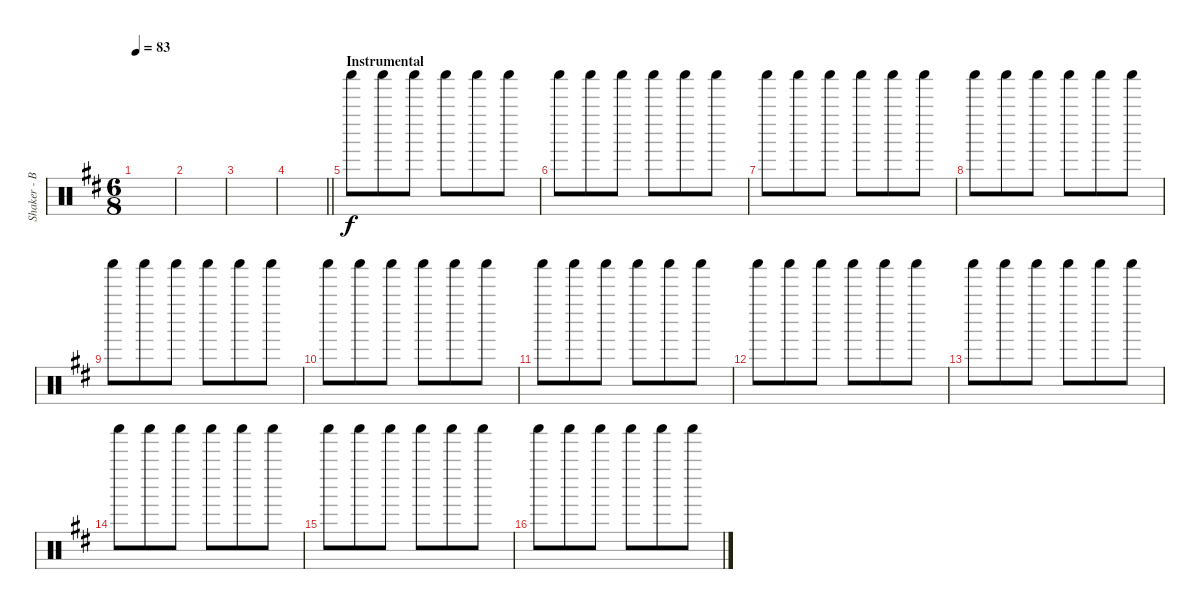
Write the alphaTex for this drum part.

\track ("Shaker - Ben Johnston" "Shaker - B") {instrument percussion}
\staff {score}
\articulation defaults
\ts (6 8)
\tempo 83
\clef neutral
\ks d
|
|
|
\barLineRight lightlight
|
\section ("" "Instrumental")
"Shaker (hit)".8 "Shaker (hit)".8 "Shaker (hit)".8 "Shaker (hit)".8 "Shaker (hit)".8 "Shaker (hit)".8 |
"Shaker (hit)".8 "Shaker (hit)".8 "Shaker (hit)".8 "Shaker (hit)".8 "Shaker (hit)".8 "Shaker (hit)".8 |
"Shaker (hit)".8 "Shaker (hit)".8 "Shaker (hit)".8 "Shaker (hit)".8 "Shaker (hit)".8 "Shaker (hit)".8 |
"Shaker (hit)".8 "Shaker (hit)".8 "Shaker (hit)".8 "Shaker (hit)".8 "Shaker (hit)".8 "Shaker (hit)".8 |
"Shaker (hit)".8 "Shaker (hit)".8 "Shaker (hit)".8 "Shaker (hit)".8 "Shaker (hit)".8 "Shaker (hit)".8 |
"Shaker (hit)".8 "Shaker (hit)".8 "Shaker (hit)".8 "Shaker (hit)".8 "Shaker (hit)".8 "Shaker (hit)".8 |
"Shaker (hit)".8 "Shaker (hit)".8 "Shaker (hit)".8 "Shaker (hit)".8 "Shaker (hit)".8 "Shaker (hit)".8 |
"Shaker (hit)".8 "Shaker (hit)".8 "Shaker (hit)".8 "Shaker (hit)".8 "Shaker (hit)".8 "Shaker (hit)".8 |
"Shaker (hit)".8 "Shaker (hit)".8 "Shaker (hit)".8 "Shaker (hit)".8 "Shaker (hit)".8 "Shaker (hit)".8 |
"Shaker (hit)".8 "Shaker (hit)".8 "Shaker (hit)".8 "Shaker (hit)".8 "Shaker (hit)".8 "Shaker (hit)".8 |
"Shaker (hit)".8 "Shaker (hit)".8 "Shaker (hit)".8 "Shaker (hit)".8 "Shaker (hit)".8 "Shaker (hit)".8 |
"Shaker (hit)".8 "Shaker (hit)".8 "Shaker (hit)".8 "Shaker (hit)".8 "Shaker (hit)".8 "Shaker (hit)".8
